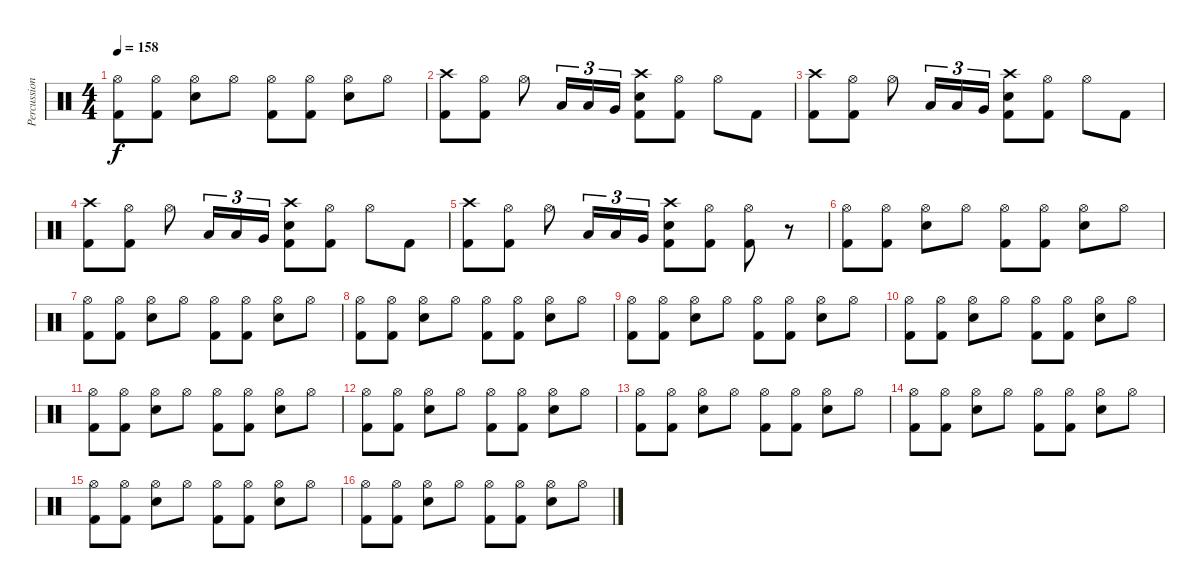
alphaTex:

\track ("Percussion" "Percussion") {instrument percussion}
\staff {score}
\articulation defaults
\ts (4 4)
\tempo 158
\clef neutral
\ks c
("Hi-Hat (open)" "Kick (hit) 2").8{dy f} ("Hi-Hat (open)" "Kick (hit) 2").8 ("Hi-Hat (open)" "Electric Snare (hit)").8 "Hi-Hat (open)".8 ("Hi-Hat (open)" "Kick (hit) 2").8 ("Hi-Hat (open)" "Kick (hit) 2").8 ("Hi-Hat (open)" "Electric Snare (hit)").8 "Hi-Hat (open)".8 |
("Crash high (hit)" "Kick (hit) 2").8 ("Hi-Hat (open)" "Kick (hit) 2").8 "Hi-Hat (open)".8 "Low Tom (hit)".16{tu (3 2)} "Low Tom (hit)".16{tu (3 2)} "Very Low Tom (hit)".16{tu (3 2)} ("Crash high (hit)" "Electric Snare (hit)" "Kick (hit) 2").8 ("Hi-Hat (open)" "Kick (hit) 2").8 "Hi-Hat (open)".8 "Kick (hit) 2".8 |
("Crash high (hit)" "Kick (hit) 2").8 ("Hi-Hat (open)" "Kick (hit) 2").8 "Hi-Hat (open)".8 "Low Tom (hit)".16{tu (3 2)} "Low Tom (hit)".16{tu (3 2)} "Very Low Tom (hit)".16{tu (3 2)} ("Crash high (hit)" "Electric Snare (hit)" "Kick (hit) 2").8 ("Hi-Hat (open)" "Kick (hit) 2").8 "Hi-Hat (open)".8 "Kick (hit) 2".8 |
("Crash high (hit)" "Kick (hit) 2").8 ("Hi-Hat (open)" "Kick (hit) 2").8 "Hi-Hat (open)".8 "Low Tom (hit)".16{tu (3 2)} "Low Tom (hit)".16{tu (3 2)} "Very Low Tom (hit)".16{tu (3 2)} ("Crash high (hit)" "Electric Snare (hit)" "Kick (hit) 2").8 ("Hi-Hat (open)" "Kick (hit) 2").8 "Hi-Hat (open)".8 "Kick (hit) 2".8 |
("Crash high (hit)" "Kick (hit) 2").8 ("Hi-Hat (open)" "Kick (hit) 2").8 "Hi-Hat (open)".8 "Low Tom (hit)".16{tu (3 2)} "Low Tom (hit)".16{tu (3 2)} "Very Low Tom (hit)".16{tu (3 2)} ("Crash high (hit)" "Electric Snare (hit)" "Kick (hit) 2").8 ("Hi-Hat (open)" "Kick (hit) 2").8 ("Hi-Hat (open)" "Kick (hit) 2").8 r.8 |
("Hi-Hat (open)" "Kick (hit) 2").8 ("Hi-Hat (open)" "Kick (hit) 2").8 ("Hi-Hat (open)" "Electric Snare (hit)").8 "Hi-Hat (open)".8 ("Hi-Hat (open)" "Kick (hit) 2").8 ("Hi-Hat (open)" "Kick (hit) 2").8 ("Hi-Hat (open)" "Electric Snare (hit)").8 "Hi-Hat (open)".8 |
("Hi-Hat (open)" "Kick (hit) 2").8 ("Hi-Hat (open)" "Kick (hit) 2").8 ("Hi-Hat (open)" "Electric Snare (hit)").8 "Hi-Hat (open)".8 ("Hi-Hat (open)" "Kick (hit) 2").8 ("Hi-Hat (open)" "Kick (hit) 2").8 ("Hi-Hat (open)" "Electric Snare (hit)").8 "Hi-Hat (open)".8 |
("Hi-Hat (open)" "Kick (hit) 2").8 ("Hi-Hat (open)" "Kick (hit) 2").8 ("Hi-Hat (open)" "Electric Snare (hit)").8 "Hi-Hat (open)".8 ("Hi-Hat (open)" "Kick (hit) 2").8 ("Hi-Hat (open)" "Kick (hit) 2").8 ("Hi-Hat (open)" "Electric Snare (hit)").8 "Hi-Hat (open)".8 |
("Hi-Hat (open)" "Kick (hit) 2").8 ("Hi-Hat (open)" "Kick (hit) 2").8 ("Hi-Hat (open)" "Electric Snare (hit)").8 "Hi-Hat (open)".8 ("Hi-Hat (open)" "Kick (hit) 2").8 ("Hi-Hat (open)" "Kick (hit) 2").8 ("Hi-Hat (open)" "Electric Snare (hit)").8 "Hi-Hat (open)".8 |
("Hi-Hat (open)" "Kick (hit) 2").8 ("Hi-Hat (open)" "Kick (hit) 2").8 ("Hi-Hat (open)" "Electric Snare (hit)").8 "Hi-Hat (open)".8 ("Hi-Hat (open)" "Kick (hit) 2").8 ("Hi-Hat (open)" "Kick (hit) 2").8 ("Hi-Hat (open)" "Electric Snare (hit)").8 "Hi-Hat (open)".8 |
("Hi-Hat (open)" "Kick (hit) 2").8 ("Hi-Hat (open)" "Kick (hit) 2").8 ("Hi-Hat (open)" "Electric Snare (hit)").8 "Hi-Hat (open)".8 ("Hi-Hat (open)" "Kick (hit) 2").8 ("Hi-Hat (open)" "Kick (hit) 2").8 ("Hi-Hat (open)" "Electric Snare (hit)").8 "Hi-Hat (open)".8 |
("Hi-Hat (open)" "Kick (hit) 2").8 ("Hi-Hat (open)" "Kick (hit) 2").8 ("Hi-Hat (open)" "Electric Snare (hit)").8 "Hi-Hat (open)".8 ("Hi-Hat (open)" "Kick (hit) 2").8 ("Hi-Hat (open)" "Kick (hit) 2").8 ("Hi-Hat (open)" "Electric Snare (hit)").8 "Hi-Hat (open)".8 |
("Hi-Hat (open)" "Kick (hit) 2").8 ("Hi-Hat (open)" "Kick (hit) 2").8 ("Hi-Hat (open)" "Electric Snare (hit)").8 "Hi-Hat (open)".8 ("Hi-Hat (open)" "Kick (hit) 2").8 ("Hi-Hat (open)" "Kick (hit) 2").8 ("Hi-Hat (open)" "Electric Snare (hit)").8 "Hi-Hat (open)".8 |
("Hi-Hat (open)" "Kick (hit) 2").8 ("Hi-Hat (open)" "Kick (hit) 2").8 ("Hi-Hat (open)" "Electric Snare (hit)").8 "Hi-Hat (open)".8 ("Hi-Hat (open)" "Kick (hit) 2").8 ("Hi-Hat (open)" "Kick (hit) 2").8 ("Hi-Hat (open)" "Electric Snare (hit)").8 "Hi-Hat (open)".8 |
("Hi-Hat (open)" "Kick (hit) 2").8 ("Hi-Hat (open)" "Kick (hit) 2").8 ("Hi-Hat (open)" "Electric Snare (hit)").8 "Hi-Hat (open)".8 ("Hi-Hat (open)" "Kick (hit) 2").8 ("Hi-Hat (open)" "Kick (hit) 2").8 ("Hi-Hat (open)" "Electric Snare (hit)").8 "Hi-Hat (open)".8 |
("Hi-Hat (open)" "Kick (hit) 2").8 ("Hi-Hat (open)" "Kick (hit) 2").8 ("Hi-Hat (open)" "Electric Snare (hit)").8 "Hi-Hat (open)".8 ("Hi-Hat (open)" "Kick (hit) 2").8 ("Hi-Hat (open)" "Kick (hit) 2").8 ("Hi-Hat (open)" "Electric Snare (hit)").8 "Hi-Hat (open)".8
